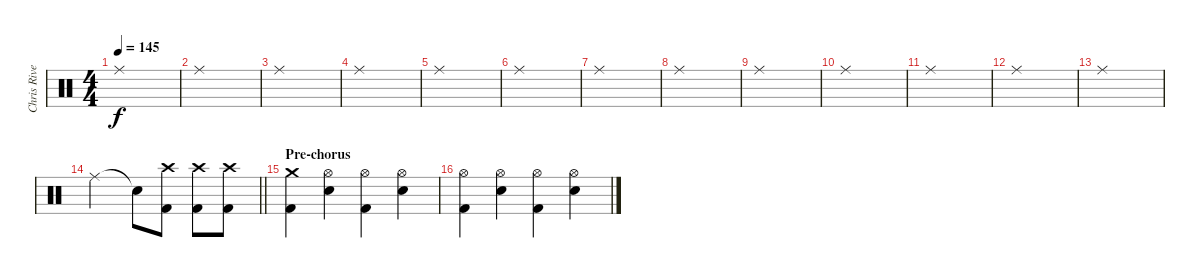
\track ("Chris Rivers" "Chris Rive") {instrument percussion}
\staff {score}
\articulation defaults
\ts (4 4)
\tempo 145
\clef neutral
\ks c "Ride (middle)".1{dy f}
|
"Ride (middle)".1 |
"Ride (middle)".1 |
"Ride (middle)".1 |
"Ride (middle)".1 |
"Ride (middle)".1 |
"Ride (middle)".1 |
"Ride (middle)".1 |
"Ride (middle)".1 |
"Ride (middle)".1 |
"Ride (middle)".1 |
"Ride (middle)".1 |
"Ride (middle)".1 |
\barLineRight lightlight "Ride (middle)".2 "Snare (hit)"{t}.8
("Crash high (hit)" "Kick (hit) 2").8 ("Crash high (hit)" "Kick (hit) 2").8 ("Crash high (hit)" "Kick (hit) 2").8 |
\section ("" "Pre-chorus")
("Crash medium (hit)" "Kick (hit) 2").4 ("Hi-Hat (open)" "Electric Snare (hit)").4 ("Hi-Hat (open)" "Kick (hit) 2").4 ("Hi-Hat (open)" "Electric Snare (hit)").4 |
("Hi-Hat (open)" "Kick (hit) 2").4 ("Hi-Hat (open)" "Electric Snare (hit)").4 ("Hi-Hat (open)" "Kick (hit) 2").4 ("Hi-Hat (open)" "Electric Snare (hit)").4
